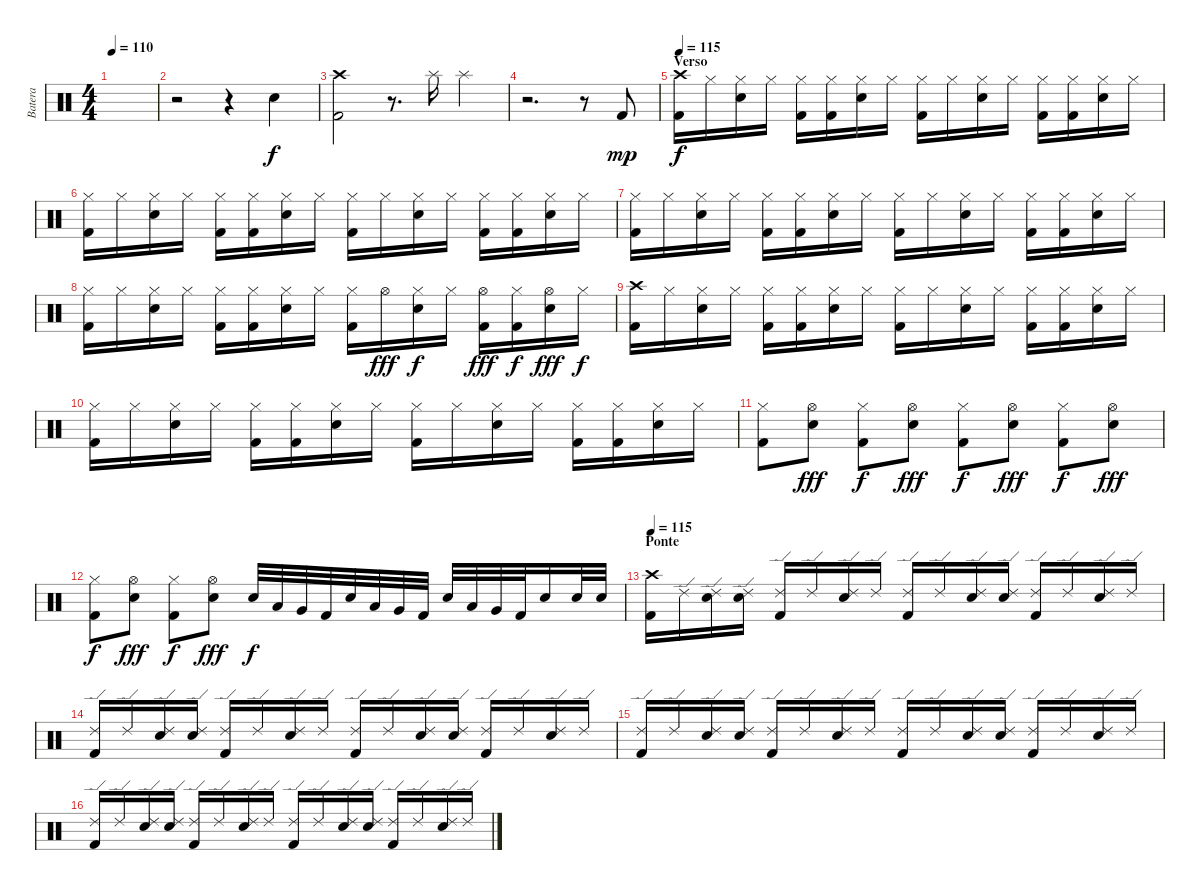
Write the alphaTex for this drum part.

\track ("Batera" "Batera") {instrument percussion}
\staff {score}
\articulation defaults
\ts (4 4)
\tempo 110
\clef neutral
\ks c
|
r.2 r.4 "Snare (hit) 2".4 |
("Crash high (hit)" "Kick (hit) 2").2 r.8{d} "Splash (hit)".16 "Splash (hit)".4 |
r.2{d} r.8 "Kick (hit) 2".8{dy mp} |
\section ("" "Verso")
\tempo 115
("Crash high (hit)" "Kick (hit) 2").16{dy f} "Hi-Hat (closed)".16 ("Hi-Hat (closed)" "Snare (hit) 2").16 "Hi-Hat (closed)".16 ("Hi-Hat (closed)" "Kick (hit) 2").16 ("Hi-Hat (closed)" "Kick (hit) 2").16 ("Hi-Hat (closed)" "Snare (hit) 2").16 "Hi-Hat (closed)".16 ("Hi-Hat (closed)" "Kick (hit) 2").16 "Hi-Hat (closed)".16 ("Hi-Hat (closed)" "Snare (hit) 2").16 "Hi-Hat (closed)".16 ("Hi-Hat (closed)" "Kick (hit) 2").16 ("Hi-Hat (closed)" "Kick (hit) 2").16 ("Hi-Hat (closed)" "Snare (hit) 2").16 "Hi-Hat (closed)".16 |
("Hi-Hat (closed)" "Kick (hit) 2").16 "Hi-Hat (closed)".16 ("Hi-Hat (closed)" "Snare (hit) 2").16 "Hi-Hat (closed)".16 ("Hi-Hat (closed)" "Kick (hit) 2").16 ("Hi-Hat (closed)" "Kick (hit) 2").16 ("Hi-Hat (closed)" "Snare (hit) 2").16 "Hi-Hat (closed)".16 ("Hi-Hat (closed)" "Kick (hit) 2").16 "Hi-Hat (closed)".16 ("Hi-Hat (closed)" "Snare (hit) 2").16 "Hi-Hat (closed)".16 ("Hi-Hat (closed)" "Kick (hit) 2").16 ("Hi-Hat (closed)" "Kick (hit) 2").16 ("Hi-Hat (closed)" "Snare (hit) 2").16 "Hi-Hat (closed)".16 |
("Hi-Hat (closed)" "Kick (hit) 2").16 "Hi-Hat (closed)".16 ("Hi-Hat (closed)" "Snare (hit) 2").16 "Hi-Hat (closed)".16 ("Hi-Hat (closed)" "Kick (hit) 2").16 ("Hi-Hat (closed)" "Kick (hit) 2").16 ("Hi-Hat (closed)" "Snare (hit) 2").16 "Hi-Hat (closed)".16 ("Hi-Hat (closed)" "Kick (hit) 2").16 "Hi-Hat (closed)".16 ("Hi-Hat (closed)" "Snare (hit) 2").16 "Hi-Hat (closed)".16 ("Hi-Hat (closed)" "Kick (hit) 2").16 ("Hi-Hat (closed)" "Kick (hit) 2").16 ("Hi-Hat (closed)" "Snare (hit) 2").16 "Hi-Hat (closed)".16 |
("Hi-Hat (closed)" "Kick (hit) 2").16 "Hi-Hat (closed)".16 ("Hi-Hat (closed)" "Snare (hit) 2").16 "Hi-Hat (closed)".16 ("Hi-Hat (closed)" "Kick (hit) 2").16 ("Hi-Hat (closed)" "Kick (hit) 2").16 ("Hi-Hat (closed)" "Snare (hit) 2").16 "Hi-Hat (closed)".16 ("Hi-Hat (closed)" "Kick (hit) 2").16 "Hi-Hat (open)".16{dy fff} ("Hi-Hat (closed)" "Snare (hit) 2").16{dy f} "Hi-Hat (closed)".16 ("Hi-Hat (open)" "Kick (hit) 2").16{dy fff} ("Hi-Hat (closed)" "Kick (hit) 2").16{dy f} ("Hi-Hat (open)" "Snare (hit) 2").16{dy fff} "Hi-Hat (closed)".16{dy f} |
("Crash high (hit)" "Kick (hit) 2").16 "Hi-Hat (closed)".16 ("Hi-Hat (closed)" "Snare (hit) 2").16 "Hi-Hat (closed)".16 ("Hi-Hat (closed)" "Kick (hit) 2").16 ("Hi-Hat (closed)" "Kick (hit) 2").16 ("Hi-Hat (closed)" "Snare (hit) 2").16 "Hi-Hat (closed)".16 ("Hi-Hat (closed)" "Kick (hit) 2").16 "Hi-Hat (closed)".16 ("Hi-Hat (closed)" "Snare (hit) 2").16 "Hi-Hat (closed)".16 ("Hi-Hat (closed)" "Kick (hit) 2").16 ("Hi-Hat (closed)" "Kick (hit) 2").16 ("Hi-Hat (closed)" "Snare (hit) 2").16 "Hi-Hat (closed)".16 |
("Hi-Hat (closed)" "Kick (hit) 2").16 "Hi-Hat (closed)".16 ("Hi-Hat (closed)" "Snare (hit) 2").16 "Hi-Hat (closed)".16 ("Hi-Hat (closed)" "Kick (hit) 2").16 ("Hi-Hat (closed)" "Kick (hit) 2").16 ("Hi-Hat (closed)" "Snare (hit) 2").16 "Hi-Hat (closed)".16 ("Hi-Hat (closed)" "Kick (hit) 2").16 "Hi-Hat (closed)".16 ("Hi-Hat (closed)" "Snare (hit) 2").16 "Hi-Hat (closed)".16 ("Hi-Hat (closed)" "Kick (hit) 2").16 ("Hi-Hat (closed)" "Kick (hit) 2").16 ("Hi-Hat (closed)" "Snare (hit) 2").16 "Hi-Hat (closed)".16 |
("Hi-Hat (closed)" "Kick (hit) 2").8 ("Hi-Hat (open)" "Snare (hit) 2").8{dy fff} ("Hi-Hat (closed)" "Kick (hit) 2").8{dy f} ("Hi-Hat (open)" "Snare (hit) 2").8{dy fff} ("Hi-Hat (closed)" "Kick (hit) 2").8{dy f} ("Hi-Hat (open)" "Snare (hit) 2").8{dy fff} ("Hi-Hat (closed)" "Kick (hit) 2").8{dy f} ("Hi-Hat (open)" "Snare (hit) 2").8{dy fff} |
("Hi-Hat (closed)" "Kick (hit) 2").8{dy f} ("Hi-Hat (open)" "Snare (hit) 2").8{dy fff} ("Hi-Hat (closed)" "Kick (hit) 2").8{dy f} ("Hi-Hat (open)" "Snare (hit) 2").8{dy fff} "Snare (hit) 2".32{dy f} "Low Tom (hit)".32 "Very Low Tom (hit)".32 "Kick (hit) 2".32 "Snare (hit) 2".32 "Low Tom (hit)".32 "Very Low Tom (hit)".32 "Kick (hit) 2".32 "Snare (hit) 2".32 "Low Tom (hit)".32 "Very Low Tom (hit)".32 "Kick (hit) 2".32 "Snare (hit) 2".16 "Snare (hit) 2".32 "Snare (hit) 2".32 |
\section ("" "Ponte")
\tempo 115
("Crash high (hit)" "Kick (hit) 2").16 "Ride (edge) 2".16 ("Ride (edge) 2" "Snare (hit) 2").16 ("Ride (edge) 2" "Snare (hit) 2").16 ("Ride (edge) 2" "Kick (hit) 2").16 "Ride (edge) 2".16 ("Ride (edge) 2" "Snare (hit) 2").16 "Ride (edge) 2".16 ("Ride (edge) 2" "Kick (hit) 2").16 "Ride (edge) 2".16 ("Ride (edge) 2" "Snare (hit) 2").16 ("Ride (edge) 2" "Snare (hit) 2").16 ("Ride (edge) 2" "Kick (hit) 2").16 "Ride (edge) 2".16 ("Ride (edge) 2" "Snare (hit) 2").16 "Ride (edge) 2".16 |
("Ride (edge) 2" "Kick (hit) 2").16 "Ride (edge) 2".16 ("Ride (edge) 2" "Snare (hit) 2").16 ("Ride (edge) 2" "Snare (hit) 2").16 ("Ride (edge) 2" "Kick (hit) 2").16 "Ride (edge) 2".16 ("Ride (edge) 2" "Snare (hit) 2").16 "Ride (edge) 2".16 ("Ride (edge) 2" "Kick (hit) 2").16 "Ride (edge) 2".16 ("Ride (edge) 2" "Snare (hit) 2").16 ("Ride (edge) 2" "Snare (hit) 2").16 ("Ride (edge) 2" "Kick (hit) 2").16 "Ride (edge) 2".16 ("Ride (edge) 2" "Snare (hit) 2").16 "Ride (edge) 2".16 |
("Ride (edge) 2" "Kick (hit) 2").16 "Ride (edge) 2".16 ("Ride (edge) 2" "Snare (hit) 2").16 ("Ride (edge) 2" "Snare (hit) 2").16 ("Ride (edge) 2" "Kick (hit) 2").16 "Ride (edge) 2".16 ("Ride (edge) 2" "Snare (hit) 2").16 "Ride (edge) 2".16 ("Ride (edge) 2" "Kick (hit) 2").16 "Ride (edge) 2".16 ("Ride (edge) 2" "Snare (hit) 2").16 ("Ride (edge) 2" "Snare (hit) 2").16 ("Ride (edge) 2" "Kick (hit) 2").16 "Ride (edge) 2".16 ("Ride (edge) 2" "Snare (hit) 2").16 "Ride (edge) 2".16 |
("Ride (edge) 2" "Kick (hit) 2").16 "Ride (edge) 2".16 ("Ride (edge) 2" "Snare (hit) 2").16 ("Ride (edge) 2" "Snare (hit) 2").16 ("Ride (edge) 2" "Kick (hit) 2").16 "Ride (edge) 2".16 ("Ride (edge) 2" "Snare (hit) 2").16 "Ride (edge) 2".16 ("Ride (edge) 2" "Kick (hit) 2").16 "Ride (edge) 2".16 ("Ride (edge) 2" "Snare (hit) 2").16 ("Ride (edge) 2" "Snare (hit) 2").16 ("Ride (edge) 2" "Kick (hit) 2").16 "Ride (edge) 2".16 ("Ride (edge) 2" "Snare (hit) 2").16 "Ride (edge) 2".16
